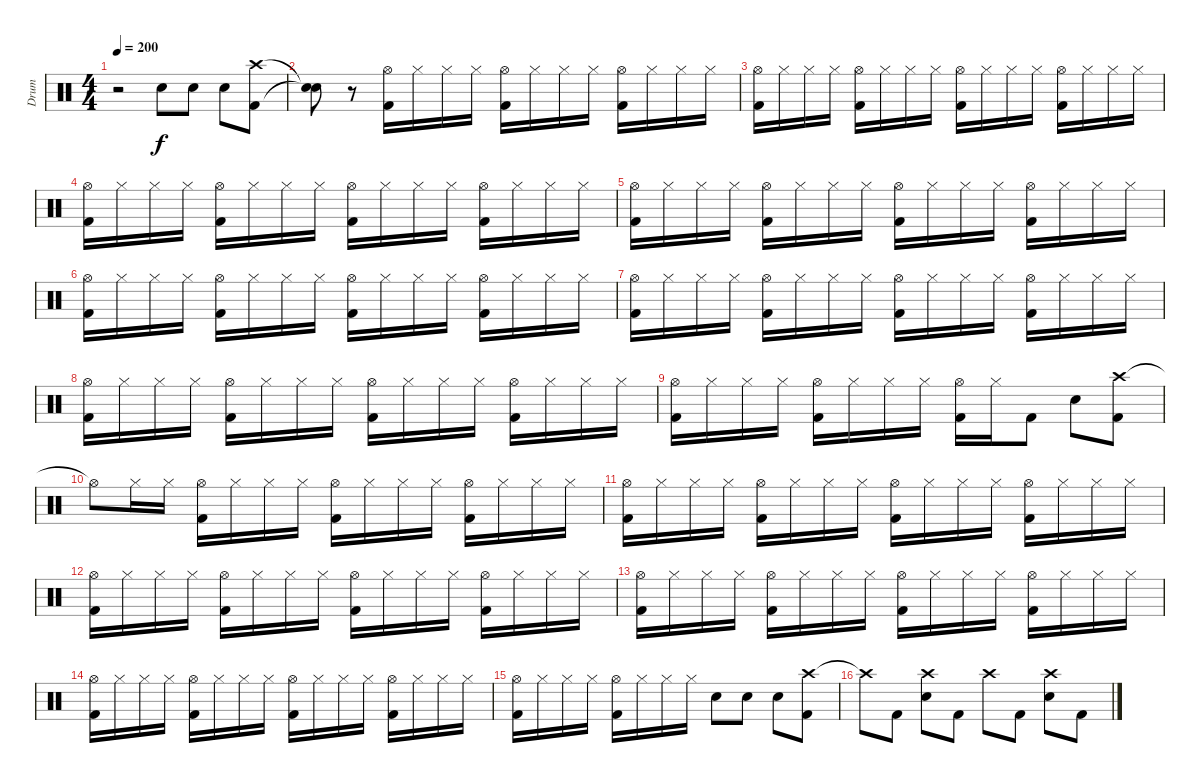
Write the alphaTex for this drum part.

\track ("Drum" "Drum") {instrument percussion}
\staff {score}
\articulation defaults
\ts (4 4)
\tempo 200
\clef neutral
\ks c
r.2{dy f} "Electric Snare (hit)".8 "Electric Snare (hit)".8 "Electric Snare (hit)".8 ("Crash high (hit)" "Kick (hit) 2").8 |
("Snare (hit)"{t} "Snare (hit)"{t}).8 r.8 ("Hi-Hat (open)" "Kick (hit) 2").16 "Hi-Hat (closed)".16 "Hi-Hat (closed)".16 "Hi-Hat (closed)".16 ("Hi-Hat (open)" "Kick (hit) 2").16 "Hi-Hat (closed)".16 "Hi-Hat (closed)".16 "Hi-Hat (closed)".16 ("Hi-Hat (open)" "Kick (hit) 2").16 "Hi-Hat (closed)".16 "Hi-Hat (closed)".16 "Hi-Hat (closed)".16 |
("Hi-Hat (open)" "Kick (hit) 2").16 "Hi-Hat (closed)".16 "Hi-Hat (closed)".16 "Hi-Hat (closed)".16 ("Hi-Hat (open)" "Kick (hit) 2").16 "Hi-Hat (closed)".16 "Hi-Hat (closed)".16 "Hi-Hat (closed)".16 ("Hi-Hat (open)" "Kick (hit) 2").16 "Hi-Hat (closed)".16 "Hi-Hat (closed)".16 "Hi-Hat (closed)".16 ("Hi-Hat (open)" "Kick (hit) 2").16 "Hi-Hat (closed)".16 "Hi-Hat (closed)".16 "Hi-Hat (closed)".16 |
("Hi-Hat (open)" "Kick (hit) 2").16 "Hi-Hat (closed)".16 "Hi-Hat (closed)".16 "Hi-Hat (closed)".16 ("Hi-Hat (open)" "Kick (hit) 2").16 "Hi-Hat (closed)".16 "Hi-Hat (closed)".16 "Hi-Hat (closed)".16 ("Hi-Hat (open)" "Kick (hit) 2").16 "Hi-Hat (closed)".16 "Hi-Hat (closed)".16 "Hi-Hat (closed)".16 ("Hi-Hat (open)" "Kick (hit) 2").16 "Hi-Hat (closed)".16 "Hi-Hat (closed)".16 "Hi-Hat (closed)".16 |
("Hi-Hat (open)" "Kick (hit) 2").16 "Hi-Hat (closed)".16 "Hi-Hat (closed)".16 "Hi-Hat (closed)".16 ("Hi-Hat (open)" "Kick (hit) 2").16 "Hi-Hat (closed)".16 "Hi-Hat (closed)".16 "Hi-Hat (closed)".16 ("Hi-Hat (open)" "Kick (hit) 2").16 "Hi-Hat (closed)".16 "Hi-Hat (closed)".16 "Hi-Hat (closed)".16 ("Hi-Hat (open)" "Kick (hit) 2").16 "Hi-Hat (closed)".16 "Hi-Hat (closed)".16 "Hi-Hat (closed)".16 |
("Hi-Hat (open)" "Kick (hit) 2").16 "Hi-Hat (closed)".16 "Hi-Hat (closed)".16 "Hi-Hat (closed)".16 ("Hi-Hat (open)" "Kick (hit) 2").16 "Hi-Hat (closed)".16 "Hi-Hat (closed)".16 "Hi-Hat (closed)".16 ("Hi-Hat (open)" "Kick (hit) 2").16 "Hi-Hat (closed)".16 "Hi-Hat (closed)".16 "Hi-Hat (closed)".16 ("Hi-Hat (open)" "Kick (hit) 2").16 "Hi-Hat (closed)".16 "Hi-Hat (closed)".16 "Hi-Hat (closed)".16 |
("Hi-Hat (open)" "Kick (hit) 2").16 "Hi-Hat (closed)".16 "Hi-Hat (closed)".16 "Hi-Hat (closed)".16 ("Hi-Hat (open)" "Kick (hit) 2").16 "Hi-Hat (closed)".16 "Hi-Hat (closed)".16 "Hi-Hat (closed)".16 ("Hi-Hat (open)" "Kick (hit) 2").16 "Hi-Hat (closed)".16 "Hi-Hat (closed)".16 "Hi-Hat (closed)".16 ("Hi-Hat (open)" "Kick (hit) 2").16 "Hi-Hat (closed)".16 "Hi-Hat (closed)".16 "Hi-Hat (closed)".16 |
("Hi-Hat (open)" "Kick (hit) 2").16 "Hi-Hat (closed)".16 "Hi-Hat (closed)".16 "Hi-Hat (closed)".16 ("Hi-Hat (open)" "Kick (hit) 2").16 "Hi-Hat (closed)".16 "Hi-Hat (closed)".16 "Hi-Hat (closed)".16 ("Hi-Hat (open)" "Kick (hit) 2").16 "Hi-Hat (closed)".16 "Hi-Hat (closed)".16 "Hi-Hat (closed)".16 ("Hi-Hat (open)" "Kick (hit) 2").16 "Hi-Hat (closed)".16 "Hi-Hat (closed)".16 "Hi-Hat (closed)".16 |
("Hi-Hat (open)" "Kick (hit) 2").16 "Hi-Hat (closed)".16 "Hi-Hat (closed)".16 "Hi-Hat (closed)".16 ("Hi-Hat (open)" "Kick (hit) 2").16 "Hi-Hat (closed)".16 "Hi-Hat (closed)".16 "Hi-Hat (closed)".16 ("Hi-Hat (open)" "Kick (hit) 2").16 "Hi-Hat (closed)".16 "Kick (hit) 2".8 "Electric Snare (hit)".8 ("Crash high (hit)" "Kick (hit) 2").8 |
"Hi-Hat (open)"{t}.8 "Hi-Hat (closed)".16 "Hi-Hat (closed)".16 ("Hi-Hat (open)" "Kick (hit) 2").16 "Hi-Hat (closed)".16 "Hi-Hat (closed)".16 "Hi-Hat (closed)".16 ("Hi-Hat (open)" "Kick (hit) 2").16 "Hi-Hat (closed)".16 "Hi-Hat (closed)".16 "Hi-Hat (closed)".16 ("Hi-Hat (open)" "Kick (hit) 2").16 "Hi-Hat (closed)".16 "Hi-Hat (closed)".16 "Hi-Hat (closed)".16 |
("Hi-Hat (open)" "Kick (hit) 2").16 "Hi-Hat (closed)".16 "Hi-Hat (closed)".16 "Hi-Hat (closed)".16 ("Hi-Hat (open)" "Kick (hit) 2").16 "Hi-Hat (closed)".16 "Hi-Hat (closed)".16 "Hi-Hat (closed)".16 ("Hi-Hat (open)" "Kick (hit) 2").16 "Hi-Hat (closed)".16 "Hi-Hat (closed)".16 "Hi-Hat (closed)".16 ("Hi-Hat (open)" "Kick (hit) 2").16 "Hi-Hat (closed)".16 "Hi-Hat (closed)".16 "Hi-Hat (closed)".16 |
("Hi-Hat (open)" "Kick (hit) 2").16 "Hi-Hat (closed)".16 "Hi-Hat (closed)".16 "Hi-Hat (closed)".16 ("Hi-Hat (open)" "Kick (hit) 2").16 "Hi-Hat (closed)".16 "Hi-Hat (closed)".16 "Hi-Hat (closed)".16 ("Hi-Hat (open)" "Kick (hit) 2").16 "Hi-Hat (closed)".16 "Hi-Hat (closed)".16 "Hi-Hat (closed)".16 ("Hi-Hat (open)" "Kick (hit) 2").16 "Hi-Hat (closed)".16 "Hi-Hat (closed)".16 "Hi-Hat (closed)".16 |
("Hi-Hat (open)" "Kick (hit) 2").16 "Hi-Hat (closed)".16 "Hi-Hat (closed)".16 "Hi-Hat (closed)".16 ("Hi-Hat (open)" "Kick (hit) 2").16 "Hi-Hat (closed)".16 "Hi-Hat (closed)".16 "Hi-Hat (closed)".16 ("Hi-Hat (open)" "Kick (hit) 2").16 "Hi-Hat (closed)".16 "Hi-Hat (closed)".16 "Hi-Hat (closed)".16 ("Hi-Hat (open)" "Kick (hit) 2").16 "Hi-Hat (closed)".16 "Hi-Hat (closed)".16 "Hi-Hat (closed)".16 |
("Hi-Hat (open)" "Kick (hit) 2").16 "Hi-Hat (closed)".16 "Hi-Hat (closed)".16 "Hi-Hat (closed)".16 ("Hi-Hat (open)" "Kick (hit) 2").16 "Hi-Hat (closed)".16 "Hi-Hat (closed)".16 "Hi-Hat (closed)".16 ("Hi-Hat (open)" "Kick (hit) 2").16 "Hi-Hat (closed)".16 "Hi-Hat (closed)".16 "Hi-Hat (closed)".16 ("Hi-Hat (open)" "Kick (hit) 2").16 "Hi-Hat (closed)".16 "Hi-Hat (closed)".16 "Hi-Hat (closed)".16 |
("Hi-Hat (open)" "Kick (hit) 2").16 "Hi-Hat (closed)".16 "Hi-Hat (closed)".16 "Hi-Hat (closed)".16 ("Hi-Hat (open)" "Kick (hit) 2").16 "Hi-Hat (closed)".16 "Hi-Hat (closed)".16 "Hi-Hat (closed)".16 "Electric Snare (hit)".8 "Electric Snare (hit)".8 "Electric Snare (hit)".8 ("Crash high (hit)" "Kick (hit) 2").8 |
"Crash high (hit)"{t}.8 "Kick (hit) 2".8 ("Crash high (hit)" "Electric Snare (hit)").8 "Kick (hit) 2".8 "Crash high (hit)".8 "Kick (hit) 2".8 ("Crash high (hit)" "Electric Snare (hit)").8 "Kick (hit) 2".8
